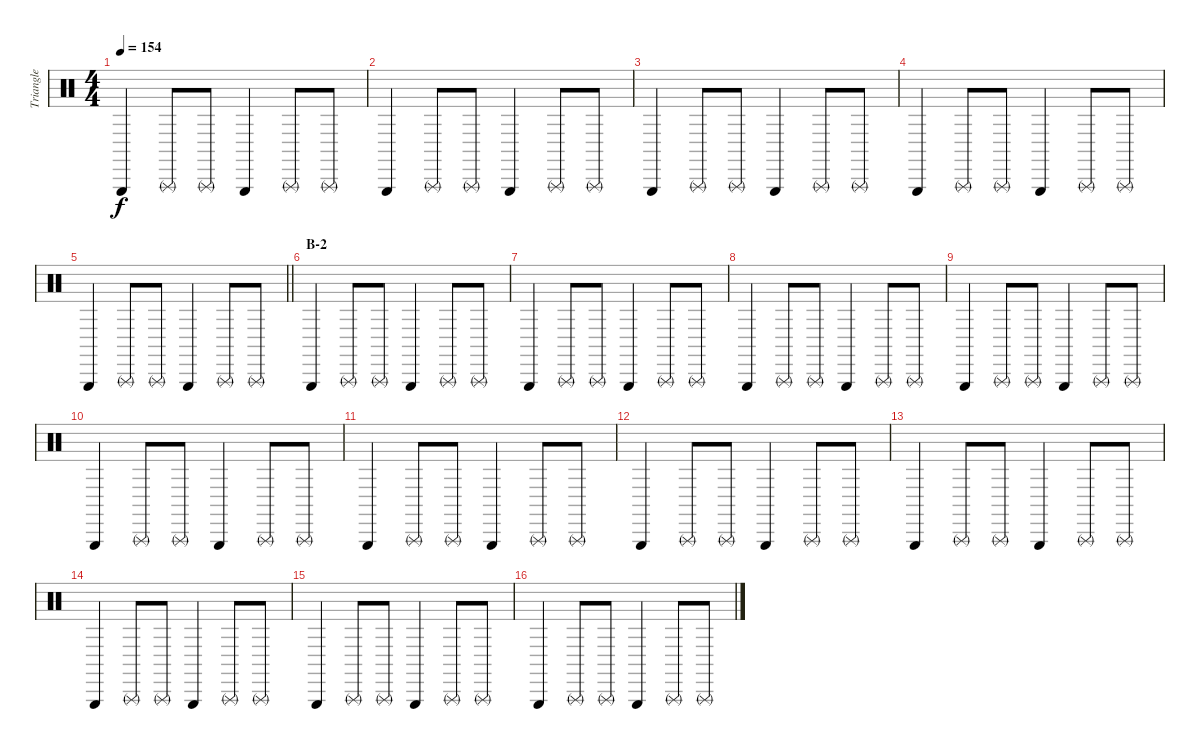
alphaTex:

\track ("Triangle" "Triangle") {instrument percussion}
\staff {score}
\articulation defaults
\ts (4 4)
\tempo 154
\clef neutral
\ks c "Triangle (hit)".4{dy f} "Triangle (rnute)".8 "Triangle (rnute)".8 "Triangle (hit)".4 "Triangle (rnute)".8 "Triangle (rnute)".8
|
"Triangle (hit)".4 "Triangle (rnute)".8 "Triangle (rnute)".8 "Triangle (hit)".4 "Triangle (rnute)".8 "Triangle (rnute)".8 |
"Triangle (hit)".4 "Triangle (rnute)".8 "Triangle (rnute)".8 "Triangle (hit)".4 "Triangle (rnute)".8 "Triangle (rnute)".8 |
"Triangle (hit)".4 "Triangle (rnute)".8 "Triangle (rnute)".8 "Triangle (hit)".4 "Triangle (rnute)".8 "Triangle (rnute)".8 |
\barLineRight lightlight "Triangle (hit)".4 "Triangle (rnute)".8 "Triangle (rnute)".8 "Triangle (hit)".4 "Triangle (rnute)".8 "Triangle (rnute)".8
|
\section ("" "B-2")
"Triangle (hit)".4 "Triangle (rnute)".8 "Triangle (rnute)".8 "Triangle (hit)".4 "Triangle (rnute)".8 "Triangle (rnute)".8 |
"Triangle (hit)".4 "Triangle (rnute)".8 "Triangle (rnute)".8 "Triangle (hit)".4 "Triangle (rnute)".8 "Triangle (rnute)".8 |
"Triangle (hit)".4 "Triangle (rnute)".8 "Triangle (rnute)".8 "Triangle (hit)".4 "Triangle (rnute)".8 "Triangle (rnute)".8 |
"Triangle (hit)".4 "Triangle (rnute)".8 "Triangle (rnute)".8 "Triangle (hit)".4 "Triangle (rnute)".8 "Triangle (rnute)".8 |
"Triangle (hit)".4 "Triangle (rnute)".8 "Triangle (rnute)".8 "Triangle (hit)".4 "Triangle (rnute)".8 "Triangle (rnute)".8 |
"Triangle (hit)".4 "Triangle (rnute)".8 "Triangle (rnute)".8 "Triangle (hit)".4 "Triangle (rnute)".8 "Triangle (rnute)".8 |
"Triangle (hit)".4 "Triangle (rnute)".8 "Triangle (rnute)".8 "Triangle (hit)".4 "Triangle (rnute)".8 "Triangle (rnute)".8 |
"Triangle (hit)".4 "Triangle (rnute)".8 "Triangle (rnute)".8 "Triangle (hit)".4 "Triangle (rnute)".8 "Triangle (rnute)".8 |
"Triangle (hit)".4 "Triangle (rnute)".8 "Triangle (rnute)".8 "Triangle (hit)".4 "Triangle (rnute)".8 "Triangle (rnute)".8 |
"Triangle (hit)".4 "Triangle (rnute)".8 "Triangle (rnute)".8 "Triangle (hit)".4 "Triangle (rnute)".8 "Triangle (rnute)".8 |
"Triangle (hit)".4 "Triangle (rnute)".8 "Triangle (rnute)".8 "Triangle (hit)".4 "Triangle (rnute)".8 "Triangle (rnute)".8
